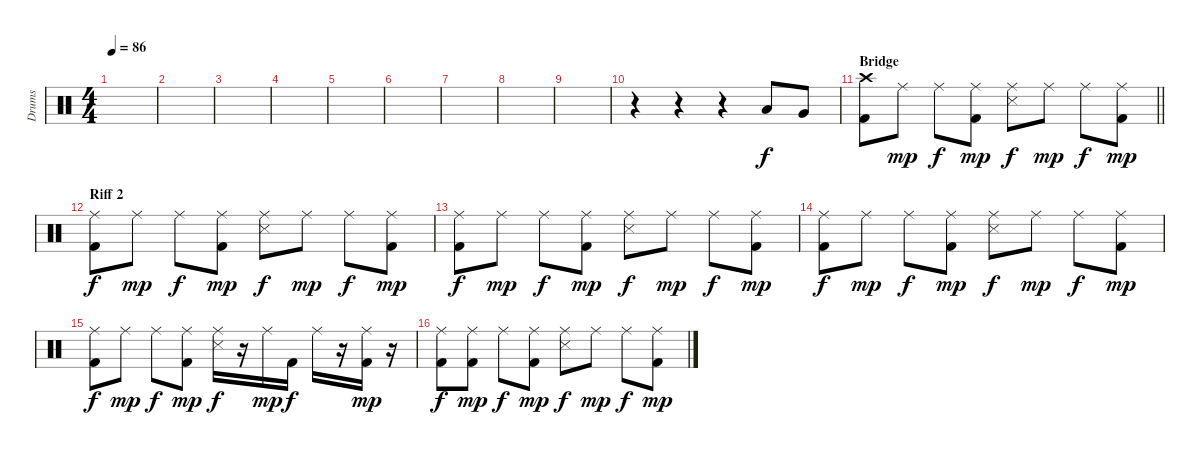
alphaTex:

\track ("Drums" "Drums") {instrument percussion}
\staff {score}
\articulation defaults
\ts (4 4)
\tempo 86
\clef neutral
\ks c
|
|
|
|
|
|
|
|
|
r.4 r.4 r.4 "Low Tom (hit)".8 "Very Low Tom (hit)".8 |
\section ("" "Bridge")
\barLineRight lightlight
("Kick (hit) 2" "Crash high (hit)").8 "Ride (middle)".8{dy mp} "Ride (middle)".8{dy f} ("Kick (hit) 2" "Ride (middle)").8{dy mp} ("Ride (middle)" "Snare (side stick) 3").8{dy f} "Ride (middle)".8{dy mp} "Ride (middle)".8{dy f} ("Kick (hit) 2" "Ride (middle)").8{dy mp} |
\section ("" "Riff 2")
("Kick (hit) 2" "Ride (middle)").8{dy f} "Ride (middle)".8{dy mp} "Ride (middle)".8{dy f} ("Kick (hit) 2" "Ride (middle)").8{dy mp} ("Ride (middle)" "Snare (side stick) 3").8{dy f} "Ride (middle)".8{dy mp} "Ride (middle)".8{dy f} ("Kick (hit) 2" "Ride (middle)").8{dy mp} |
("Kick (hit) 2" "Ride (middle)").8{dy f} "Ride (middle)".8{dy mp} "Ride (middle)".8{dy f} ("Kick (hit) 2" "Ride (middle)").8{dy mp} ("Ride (middle)" "Snare (side stick) 3").8{dy f} "Ride (middle)".8{dy mp} "Ride (middle)".8{dy f} ("Kick (hit) 2" "Ride (middle)").8{dy mp} |
("Kick (hit) 2" "Ride (middle)").8{dy f} "Ride (middle)".8{dy mp} "Ride (middle)".8{dy f} ("Kick (hit) 2" "Ride (middle)").8{dy mp} ("Ride (middle)" "Snare (side stick) 3").8{dy f} "Ride (middle)".8{dy mp} "Ride (middle)".8{dy f} ("Kick (hit) 2" "Ride (middle)").8{dy mp} |
("Kick (hit) 2" "Ride (middle)").8{dy f} "Ride (middle)".8{dy mp} "Ride (middle)".8{dy f} ("Kick (hit) 2" "Ride (middle)").8{dy mp} ("Ride (middle)" "Snare (side stick) 3").16{dy f} r.16 "Ride (middle)".16{dy mp} "Kick (hit) 2".16{dy f} "Ride (middle)".16 r.16 ("Kick (hit) 2" "Ride (middle)").16{dy mp} r.16 |
("Kick (hit) 2" "Ride (middle)").8{dy f} ("Kick (hit) 2" "Ride (middle)").8{dy mp} "Ride (middle)".8{dy f} ("Kick (hit) 2" "Ride (middle)").8{dy mp} ("Ride (middle)" "Snare (side stick) 3").8{dy f} "Ride (middle)".8{dy mp} "Ride (middle)".8{dy f} ("Kick (hit) 2" "Ride (middle)").8{dy mp}
